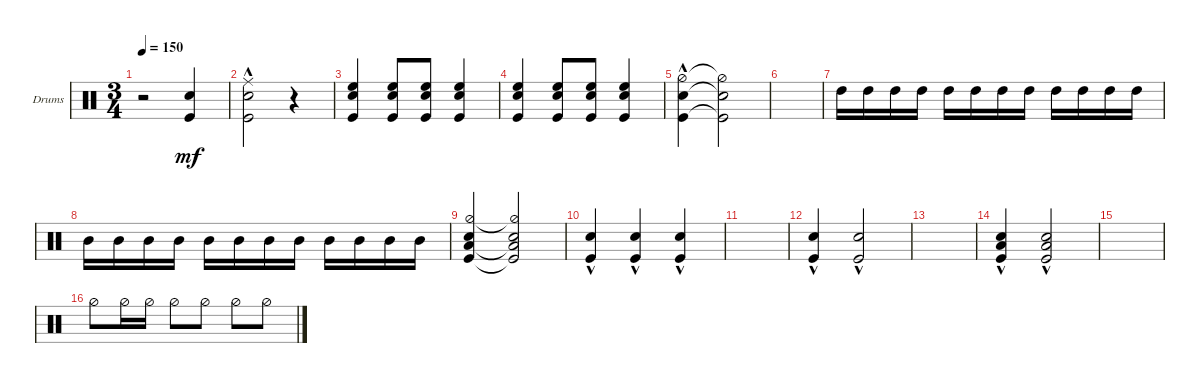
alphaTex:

\defaultSystemsLayout 4
\bracketExtendMode groupsimilarinstruments
\firstSystemTrackNameOrientation horizontal
\otherSystemsTrackNameOrientation horizontal
\track ("Drumkit" "Drums") {instrument percussion}
\staff {score}
\articulation defaults
\ts (3 4)
\tempo 150
\clef neutral
\ks c
r.2{dy mf} ("Kick (hit)" "Snare (hit) 2").4 |
("Kick (hit)"{hac} "Snare (hit) 2"{hac} "Ride (middle)"{hac}).2 r.4 |
("Kick (hit)" "High Floor Tom (hit)" "Snare (hit) 2").4 ("Kick (hit)" "High Floor Tom (hit)" "Snare (hit) 2").8 ("Kick (hit)" "High Floor Tom (hit)" "Snare (hit) 2").8 ("Kick (hit)" "High Floor Tom (hit)" "Snare (hit) 2").4 |
("Kick (hit)" "High Floor Tom (hit)" "Snare (hit) 2").4 ("Kick (hit)" "High Floor Tom (hit)" "Snare (hit) 2").8 ("Kick (hit)" "High Floor Tom (hit)" "Snare (hit) 2").8 ("Kick (hit)" "High Floor Tom (hit)" "Snare (hit) 2").4 |
("Kick (hit)"{hac} "Snare (hit) 2" "Hi-Hat (half)").4 ("Kick (hit)"{t} "Snare (hit) 2"{t} "Hi-Hat (half)"{t}).2 |
|
"High Tom (hit)".16 "High Tom (hit)".16 "High Tom (hit)".16 "High Tom (hit)".16 "High Tom (hit)".16 "High Tom (hit)".16 "High Tom (hit)".16 "High Tom (hit)".16 "High Tom (hit)".16 "High Tom (hit)".16 "High Tom (hit)".16 "High Tom (hit)".16 |
"Mid Tom (hit)".16 "Mid Tom (hit)".16 "Mid Tom (hit)".16 "Mid Tom (hit)".16 "Mid Tom (hit)".16 "Mid Tom (hit)".16 "Mid Tom (hit)".16 "Mid Tom (hit)".16 "Mid Tom (hit)".16 "Mid Tom (hit)".16 "Mid Tom (hit)".16 "Mid Tom (hit)".16 |
("Kick (hit)" "Low Tom (hit)" "Hi-Hat (half)" "Snare (hit) 2").4 ("Kick (hit)"{t} "Low Tom (hit)"{t} "Hi-Hat (half)"{t} "Snare (hit) 2").2 |
("Kick (hit)"{hac} "Snare (hit) 2"{hac}).4 ("Kick (hit)"{hac} "Snare (hit) 2"{hac}).4 ("Kick (hit)"{hac} "Snare (hit) 2"{hac}).4 |
|
("Kick (hit)"{hac} "Snare (hit) 2"{hac}).4 ("Kick (hit)"{hac} "Snare (hit) 2"{hac}).2 |
|
("Kick (hit)"{hac} "Low Tom (hit)"{hac} "Snare (hit) 2"{hac}).4 ("Kick (hit)"{hac} "Low Tom (hit)"{hac} "Snare (hit) 2"{hac}).2 |
|
"Hi-Hat (half)".8 "Hi-Hat (half)".16 "Hi-Hat (half)".16 "Hi-Hat (half)".8 "Hi-Hat (half)".8 "Hi-Hat (half)".8 "Hi-Hat (half)".8
